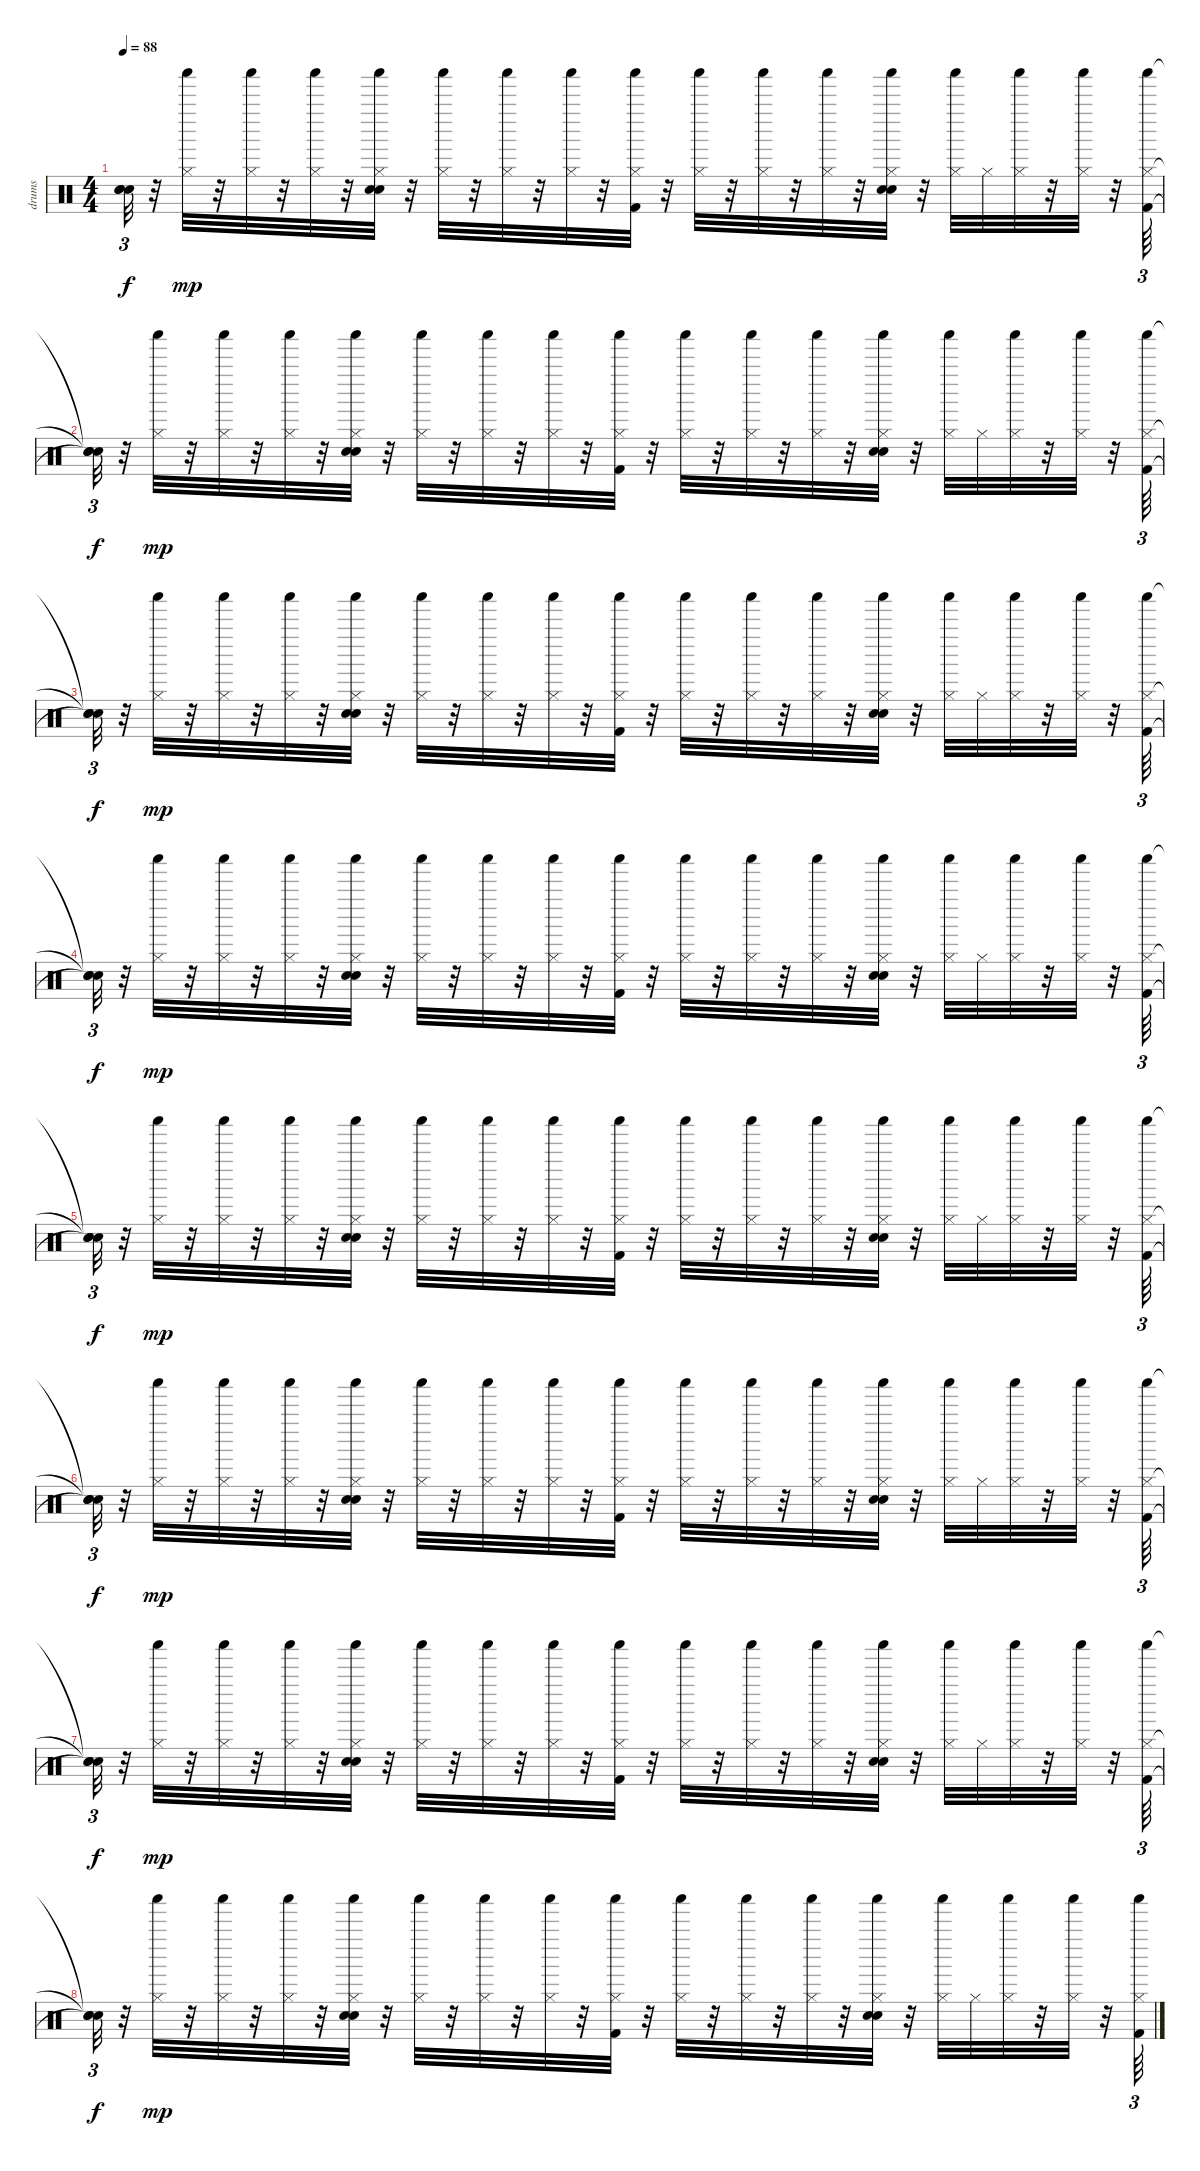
\track ("drums" "drums") {instrument percussion}
\staff {score}
\articulation defaults
\ts (4 4)
\tempo 88
\clef neutral
\ks c
("Snare (hit)"{t} "Snare (hit)"{t} "Snare (hit)"{t}).32{tu (3 2) dy f} r.32 ("Shaker (hit)" "Hi-Hat (closed)").32{dy mp} r.32 ("Shaker (hit)" "Hi-Hat (closed)").32 r.32 ("Shaker (hit)" "Hi-Hat (closed)").32 r.32 ("Shaker (hit)" "Hand Clap (hit)" "Snare (hit) 2" "Hi-Hat (closed)").32 r.32 ("Shaker (hit)" "Hi-Hat (closed)").32 r.32 ("Shaker (hit)" "Hi-Hat (closed)").32 r.32 ("Shaker (hit)" "Hi-Hat (closed)").32 r.32 ("Shaker (hit)" "Kick (hit) 2" "Hi-Hat (closed)").32 r.32 ("Shaker (hit)" "Hi-Hat (closed)").32 r.32 ("Shaker (hit)" "Hi-Hat (closed)").32 r.32 ("Shaker (hit)" "Hi-Hat (closed)").32 r.32 ("Shaker (hit)" "Hand Clap (hit)" "Snare (hit) 2" "Hi-Hat (closed)").32 r.32 ("Shaker (hit)" "Hi-Hat (closed)").32 "Hi-Hat (closed)".32 ("Shaker (hit)" "Hi-Hat (closed)").32 r.32 ("Shaker (hit)" "Hi-Hat (closed)").32 r.32 ("Shaker (hit)" "Kick (hit) 2" "Hi-Hat (closed)").64{tu (3 2)} |
("Snare (hit)"{t} "Snare (hit)"{t} "Snare (hit)"{t}).32{tu (3 2) dy f} r.32 ("Shaker (hit)" "Hi-Hat (closed)").32{dy mp} r.32 ("Shaker (hit)" "Hi-Hat (closed)").32 r.32 ("Shaker (hit)" "Hi-Hat (closed)").32 r.32 ("Shaker (hit)" "Hand Clap (hit)" "Snare (hit) 2" "Hi-Hat (closed)").32 r.32 ("Shaker (hit)" "Hi-Hat (closed)").32 r.32 ("Shaker (hit)" "Hi-Hat (closed)").32 r.32 ("Shaker (hit)" "Hi-Hat (closed)").32 r.32 ("Shaker (hit)" "Kick (hit) 2" "Hi-Hat (closed)").32 r.32 ("Shaker (hit)" "Hi-Hat (closed)").32 r.32 ("Shaker (hit)" "Hi-Hat (closed)").32 r.32 ("Shaker (hit)" "Hi-Hat (closed)").32 r.32 ("Shaker (hit)" "Hand Clap (hit)" "Snare (hit) 2" "Hi-Hat (closed)").32 r.32 ("Shaker (hit)" "Hi-Hat (closed)").32 "Hi-Hat (closed)".32 ("Shaker (hit)" "Hi-Hat (closed)").32 r.32 ("Shaker (hit)" "Hi-Hat (closed)").32 r.32 ("Shaker (hit)" "Kick (hit) 2" "Hi-Hat (closed)").64{tu (3 2)} |
("Snare (hit)"{t} "Snare (hit)"{t} "Snare (hit)"{t}).32{tu (3 2) dy f} r.32 ("Shaker (hit)" "Hi-Hat (closed)").32{dy mp} r.32 ("Shaker (hit)" "Hi-Hat (closed)").32 r.32 ("Shaker (hit)" "Hi-Hat (closed)").32 r.32 ("Shaker (hit)" "Hand Clap (hit)" "Snare (hit) 2" "Hi-Hat (closed)").32 r.32 ("Shaker (hit)" "Hi-Hat (closed)").32 r.32 ("Shaker (hit)" "Hi-Hat (closed)").32 r.32 ("Shaker (hit)" "Hi-Hat (closed)").32 r.32 ("Shaker (hit)" "Kick (hit) 2" "Hi-Hat (closed)").32 r.32 ("Shaker (hit)" "Hi-Hat (closed)").32 r.32 ("Shaker (hit)" "Hi-Hat (closed)").32 r.32 ("Shaker (hit)" "Hi-Hat (closed)").32 r.32 ("Shaker (hit)" "Hand Clap (hit)" "Snare (hit) 2" "Hi-Hat (closed)").32 r.32 ("Shaker (hit)" "Hi-Hat (closed)").32 "Hi-Hat (closed)".32 ("Shaker (hit)" "Hi-Hat (closed)").32 r.32 ("Shaker (hit)" "Hi-Hat (closed)").32 r.32 ("Shaker (hit)" "Kick (hit) 2" "Hi-Hat (closed)").64{tu (3 2)} |
("Snare (hit)"{t} "Snare (hit)"{t} "Snare (hit)"{t}).32{tu (3 2) dy f} r.32 ("Shaker (hit)" "Hi-Hat (closed)").32{dy mp} r.32 ("Shaker (hit)" "Hi-Hat (closed)").32 r.32 ("Shaker (hit)" "Hi-Hat (closed)").32 r.32 ("Shaker (hit)" "Hand Clap (hit)" "Snare (hit) 2" "Hi-Hat (closed)").32 r.32 ("Shaker (hit)" "Hi-Hat (closed)").32 r.32 ("Shaker (hit)" "Hi-Hat (closed)").32 r.32 ("Shaker (hit)" "Hi-Hat (closed)").32 r.32 ("Shaker (hit)" "Kick (hit) 2" "Hi-Hat (closed)").32 r.32 ("Shaker (hit)" "Hi-Hat (closed)").32 r.32 ("Shaker (hit)" "Hi-Hat (closed)").32 r.32 ("Shaker (hit)" "Hi-Hat (closed)").32 r.32 ("Shaker (hit)" "Hand Clap (hit)" "Snare (hit) 2" "Hi-Hat (closed)").32 r.32 ("Shaker (hit)" "Hi-Hat (closed)").32 "Hi-Hat (closed)".32 ("Shaker (hit)" "Hi-Hat (closed)").32 r.32 ("Shaker (hit)" "Hi-Hat (closed)").32 r.32 ("Shaker (hit)" "Kick (hit) 2" "Hi-Hat (closed)").64{tu (3 2)} |
("Snare (hit)"{t} "Snare (hit)"{t} "Snare (hit)"{t}).32{tu (3 2) dy f} r.32 ("Shaker (hit)" "Hi-Hat (closed)").32{dy mp} r.32 ("Shaker (hit)" "Hi-Hat (closed)").32 r.32 ("Shaker (hit)" "Hi-Hat (closed)").32 r.32 ("Shaker (hit)" "Hand Clap (hit)" "Snare (hit) 2" "Hi-Hat (closed)").32 r.32 ("Shaker (hit)" "Hi-Hat (closed)").32 r.32 ("Shaker (hit)" "Hi-Hat (closed)").32 r.32 ("Shaker (hit)" "Hi-Hat (closed)").32 r.32 ("Shaker (hit)" "Kick (hit) 2" "Hi-Hat (closed)").32 r.32 ("Shaker (hit)" "Hi-Hat (closed)").32 r.32 ("Shaker (hit)" "Hi-Hat (closed)").32 r.32 ("Shaker (hit)" "Hi-Hat (closed)").32 r.32 ("Shaker (hit)" "Hand Clap (hit)" "Snare (hit) 2" "Hi-Hat (closed)").32 r.32 ("Shaker (hit)" "Hi-Hat (closed)").32 "Hi-Hat (closed)".32 ("Shaker (hit)" "Hi-Hat (closed)").32 r.32 ("Shaker (hit)" "Hi-Hat (closed)").32 r.32 ("Shaker (hit)" "Kick (hit) 2" "Hi-Hat (closed)").64{tu (3 2)} |
("Snare (hit)"{t} "Snare (hit)"{t} "Snare (hit)"{t}).32{tu (3 2) dy f} r.32 ("Shaker (hit)" "Hi-Hat (closed)").32{dy mp} r.32 ("Shaker (hit)" "Hi-Hat (closed)").32 r.32 ("Shaker (hit)" "Hi-Hat (closed)").32 r.32 ("Shaker (hit)" "Hand Clap (hit)" "Snare (hit) 2" "Hi-Hat (closed)").32 r.32 ("Shaker (hit)" "Hi-Hat (closed)").32 r.32 ("Shaker (hit)" "Hi-Hat (closed)").32 r.32 ("Shaker (hit)" "Hi-Hat (closed)").32 r.32 ("Shaker (hit)" "Kick (hit) 2" "Hi-Hat (closed)").32 r.32 ("Shaker (hit)" "Hi-Hat (closed)").32 r.32 ("Shaker (hit)" "Hi-Hat (closed)").32 r.32 ("Shaker (hit)" "Hi-Hat (closed)").32 r.32 ("Shaker (hit)" "Hand Clap (hit)" "Snare (hit) 2" "Hi-Hat (closed)").32 r.32 ("Shaker (hit)" "Hi-Hat (closed)").32 "Hi-Hat (closed)".32 ("Shaker (hit)" "Hi-Hat (closed)").32 r.32 ("Shaker (hit)" "Hi-Hat (closed)").32 r.32 ("Shaker (hit)" "Kick (hit) 2" "Hi-Hat (closed)").64{tu (3 2)} |
("Snare (hit)"{t} "Snare (hit)"{t} "Snare (hit)"{t}).32{tu (3 2) dy f} r.32 ("Shaker (hit)" "Hi-Hat (closed)").32{dy mp} r.32 ("Shaker (hit)" "Hi-Hat (closed)").32 r.32 ("Shaker (hit)" "Hi-Hat (closed)").32 r.32 ("Shaker (hit)" "Hand Clap (hit)" "Snare (hit) 2" "Hi-Hat (closed)").32 r.32 ("Shaker (hit)" "Hi-Hat (closed)").32 r.32 ("Shaker (hit)" "Hi-Hat (closed)").32 r.32 ("Shaker (hit)" "Hi-Hat (closed)").32 r.32 ("Shaker (hit)" "Kick (hit) 2" "Hi-Hat (closed)").32 r.32 ("Shaker (hit)" "Hi-Hat (closed)").32 r.32 ("Shaker (hit)" "Hi-Hat (closed)").32 r.32 ("Shaker (hit)" "Hi-Hat (closed)").32 r.32 ("Shaker (hit)" "Hand Clap (hit)" "Snare (hit) 2" "Hi-Hat (closed)").32 r.32 ("Shaker (hit)" "Hi-Hat (closed)").32 "Hi-Hat (closed)".32 ("Shaker (hit)" "Hi-Hat (closed)").32 r.32 ("Shaker (hit)" "Hi-Hat (closed)").32 r.32 ("Shaker (hit)" "Kick (hit) 2" "Hi-Hat (closed)").64{tu (3 2)} |
("Snare (hit)"{t} "Snare (hit)"{t} "Snare (hit)"{t}).32{tu (3 2) dy f} r.32 ("Shaker (hit)" "Hi-Hat (closed)").32{dy mp} r.32 ("Shaker (hit)" "Hi-Hat (closed)").32 r.32 ("Shaker (hit)" "Hi-Hat (closed)").32 r.32 ("Shaker (hit)" "Hand Clap (hit)" "Snare (hit) 2" "Hi-Hat (closed)").32 r.32 ("Shaker (hit)" "Hi-Hat (closed)").32 r.32 ("Shaker (hit)" "Hi-Hat (closed)").32 r.32 ("Shaker (hit)" "Hi-Hat (closed)").32 r.32 ("Shaker (hit)" "Kick (hit) 2" "Hi-Hat (closed)").32 r.32 ("Shaker (hit)" "Hi-Hat (closed)").32 r.32 ("Shaker (hit)" "Hi-Hat (closed)").32 r.32 ("Shaker (hit)" "Hi-Hat (closed)").32 r.32 ("Shaker (hit)" "Hand Clap (hit)" "Snare (hit) 2" "Hi-Hat (closed)").32 r.32 ("Shaker (hit)" "Hi-Hat (closed)").32 "Hi-Hat (closed)".32 ("Shaker (hit)" "Hi-Hat (closed)").32 r.32 ("Shaker (hit)" "Hi-Hat (closed)").32 r.32 ("Shaker (hit)" "Kick (hit) 2" "Hi-Hat (closed)").64{tu (3 2)}
